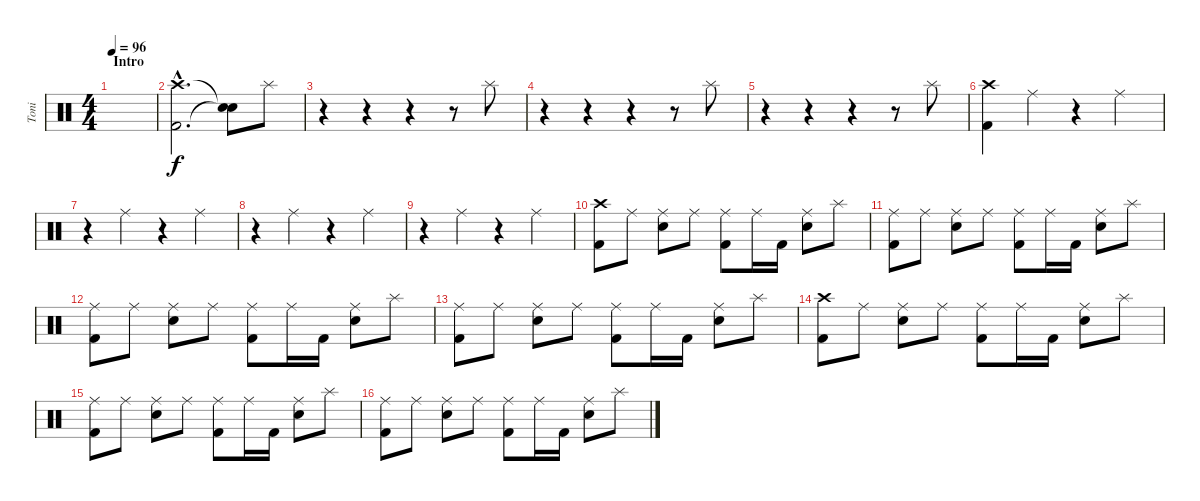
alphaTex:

\track ("Toni" "Toni") {instrument percussion}
\staff {score}
\articulation defaults
\ts (4 4)
\section ("" "Intro")
\tempo 96
\clef neutral
\ks c
|
("Crash high (hit)"{hac} "Kick (hit) 2"{hac}).2{d} ("Snare (hit)"{t} "Snare (hit)"{t}).8 "Splash (hit)".8 |
r.4 r.4 r.4 r.8 "Splash (hit)".8 |
r.4 r.4 r.4 r.8 "Splash (hit)".8 |
r.4 r.4 r.4 r.8 "Splash (hit)".8 |
("Crash high (hit)" "Kick (hit) 2").4 "Ride (middle)".4 r.4 "Ride (middle)".4 |
r.4 "Ride (middle)".4 r.4 "Ride (middle)".4 |
r.4 "Ride (middle)".4 r.4 "Ride (middle)".4 |
r.4 "Ride (middle)".4 r.4 "Ride (middle)".4 |
("Crash high (hit)" "Kick (hit) 2").8 "Ride (middle)".8 ("Ride (middle)" "Electric Snare (hit)").8 "Ride (middle)".8 ("Ride (middle)" "Kick (hit) 2").8 "Ride (middle)".16 "Kick (hit) 2".16 ("Ride (middle)" "Electric Snare (hit)").8 "Splash (hit)".8 |
("Ride (middle)" "Kick (hit) 2").8 "Ride (middle)".8 ("Ride (middle)" "Electric Snare (hit)").8 "Ride (middle)".8 ("Ride (middle)" "Kick (hit) 2").8 "Ride (middle)".16 "Kick (hit) 2".16 ("Ride (middle)" "Electric Snare (hit)").8 "Splash (hit)".8 |
("Ride (middle)" "Kick (hit) 2").8 "Ride (middle)".8 ("Ride (middle)" "Electric Snare (hit)").8 "Ride (middle)".8 ("Ride (middle)" "Kick (hit) 2").8 "Ride (middle)".16 "Kick (hit) 2".16 ("Ride (middle)" "Electric Snare (hit)").8 "Splash (hit)".8 |
("Ride (middle)" "Kick (hit) 2").8 "Ride (middle)".8 ("Ride (middle)" "Electric Snare (hit)").8 "Ride (middle)".8 ("Ride (middle)" "Kick (hit) 2").8 "Ride (middle)".16 "Kick (hit) 2".16 ("Ride (middle)" "Electric Snare (hit)").8 "Splash (hit)".8 |
("Crash high (hit)" "Kick (hit) 2").8 "Ride (middle)".8 ("Ride (middle)" "Electric Snare (hit)").8 "Ride (middle)".8 ("Ride (middle)" "Kick (hit) 2").8 "Ride (middle)".16 "Kick (hit) 2".16 ("Ride (middle)" "Electric Snare (hit)").8 "Splash (hit)".8 |
("Ride (middle)" "Kick (hit) 2").8 "Ride (middle)".8 ("Ride (middle)" "Electric Snare (hit)").8 "Ride (middle)".8 ("Ride (middle)" "Kick (hit) 2").8 "Ride (middle)".16 "Kick (hit) 2".16 ("Ride (middle)" "Electric Snare (hit)").8 "Splash (hit)".8 |
("Ride (middle)" "Kick (hit) 2").8 "Ride (middle)".8 ("Ride (middle)" "Electric Snare (hit)").8 "Ride (middle)".8 ("Ride (middle)" "Kick (hit) 2").8 "Ride (middle)".16 "Kick (hit) 2".16 ("Ride (middle)" "Electric Snare (hit)").8 "Splash (hit)".8
